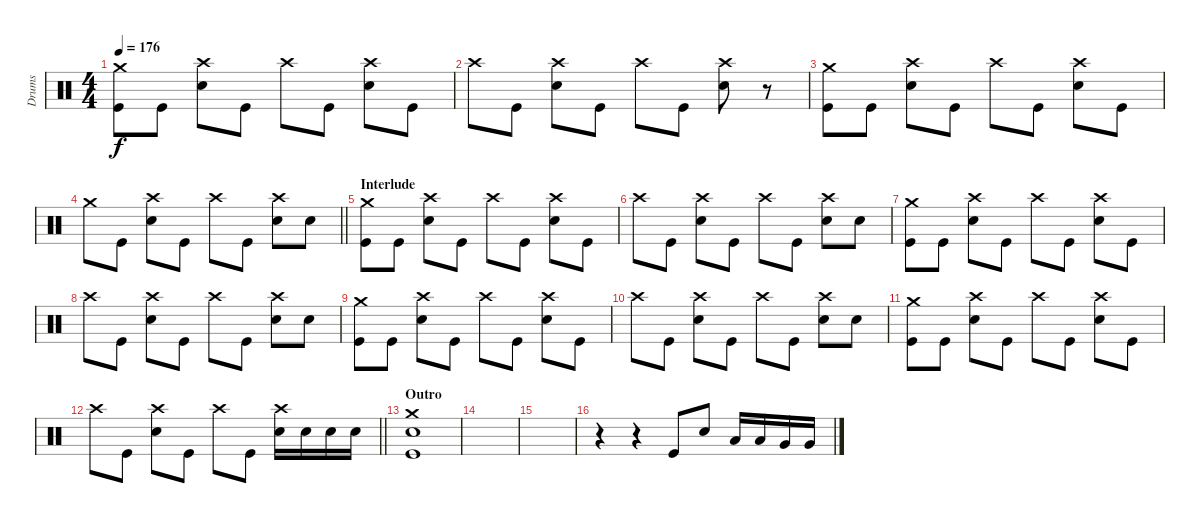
\track ("Drums" "Drums") {instrument percussion}
\staff {score}
\articulation defaults
\ts (4 4)
\tempo 176
\clef neutral
\ks c
("Crash medium (hit)" "Kick (hit)").8{dy f} "Kick (hit)".8 ("Crash high (hit)" "Electric Snare (hit)").8 "Kick (hit)".8 "Crash high (hit)".8 "Kick (hit)".8 ("Crash high (hit)" "Electric Snare (hit)").8 "Kick (hit)".8 |
"Crash high (hit)".8 "Kick (hit)".8 ("Crash high (hit)" "Electric Snare (hit)").8 "Kick (hit)".8 "Crash high (hit)".8 "Kick (hit)".8 ("Crash high (hit)" "Electric Snare (hit)").8 r.8 |
("Crash medium (hit)" "Kick (hit)").8 "Kick (hit)".8 ("Crash high (hit)" "Electric Snare (hit)").8 "Kick (hit)".8 "Crash high (hit)".8 "Kick (hit)".8 ("Crash high (hit)" "Electric Snare (hit)").8 "Kick (hit)".8 |
\barLineRight lightlight "Crash medium (hit)".8 "Kick (hit)".8
("Crash high (hit)" "Electric Snare (hit)").8 "Kick (hit)".8 "Crash high (hit)".8 "Kick (hit)".8 ("Crash high (hit)" "Electric Snare (hit)").8 "Electric Snare (hit)".8 |
\section ("" "Interlude")
("Crash medium (hit)" "Kick (hit)").8 "Kick (hit)".8 ("Crash high (hit)" "Electric Snare (hit)").8 "Kick (hit)".8 "Crash high (hit)".8 "Kick (hit)".8 ("Crash high (hit)" "Electric Snare (hit)").8 "Kick (hit)".8 |
"Crash high (hit)".8 "Kick (hit)".8 ("Crash high (hit)" "Electric Snare (hit)").8 "Kick (hit)".8 "Crash high (hit)".8 "Kick (hit)".8 ("Crash high (hit)" "Electric Snare (hit)").8 "Electric Snare (hit)".8 |
("Crash medium (hit)" "Kick (hit)").8 "Kick (hit)".8 ("Crash high (hit)" "Electric Snare (hit)").8 "Kick (hit)".8 "Crash high (hit)".8 "Kick (hit)".8 ("Crash high (hit)" "Electric Snare (hit)").8 "Kick (hit)".8 |
"Crash high (hit)".8 "Kick (hit)".8 ("Crash high (hit)" "Electric Snare (hit)").8 "Kick (hit)".8 "Crash high (hit)".8 "Kick (hit)".8 ("Crash high (hit)" "Electric Snare (hit)").8 "Electric Snare (hit)".8 |
("Crash medium (hit)" "Kick (hit)").8 "Kick (hit)".8 ("Crash high (hit)" "Electric Snare (hit)").8 "Kick (hit)".8 "Crash high (hit)".8 "Kick (hit)".8 ("Crash high (hit)" "Electric Snare (hit)").8 "Kick (hit)".8 |
"Crash high (hit)".8 "Kick (hit)".8 ("Crash high (hit)" "Electric Snare (hit)").8 "Kick (hit)".8 "Crash high (hit)".8 "Kick (hit)".8 ("Crash high (hit)" "Electric Snare (hit)").8 "Electric Snare (hit)".8 |
("Crash medium (hit)" "Kick (hit)").8 "Kick (hit)".8 ("Crash high (hit)" "Electric Snare (hit)").8 "Kick (hit)".8 "Crash high (hit)".8 "Kick (hit)".8 ("Crash high (hit)" "Electric Snare (hit)").8 "Kick (hit)".8 |
\barLineRight lightlight "Crash high (hit)".8 "Kick (hit)".8
("Crash high (hit)" "Electric Snare (hit)").8 "Kick (hit)".8 "Crash high (hit)".8 "Kick (hit)".8 ("Crash high (hit)" "Electric Snare (hit)").16 "Electric Snare (hit)".16 "Electric Snare (hit)".16 "Electric Snare (hit)".16 |
\section ("" "Outro")
("Crash medium (hit)" "Electric Snare (hit)" "Kick (hit)").1 |
|
|
r.4 r.4 "Kick (hit)".8 "Electric Snare (hit)".8 "Low Tom (hit)".16 "Low Tom (hit)".16 "Very Low Tom (hit)".16 "Very Low Tom (hit)".16
